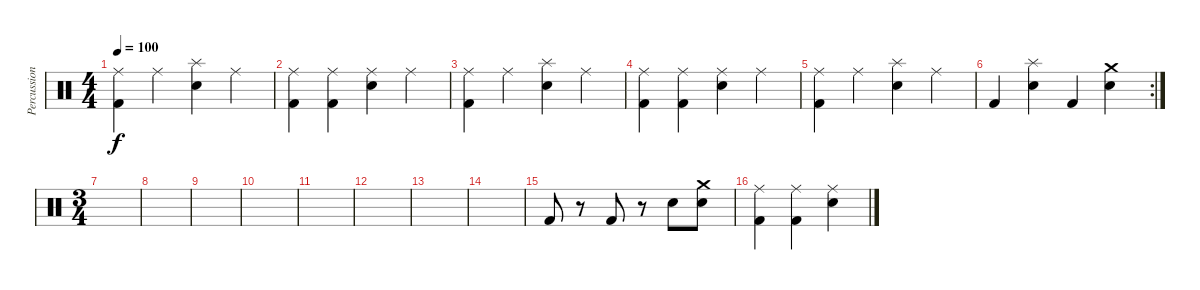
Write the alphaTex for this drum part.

\track ("Percussion" "Percussion") {instrument percussion}
\staff {score}
\articulation defaults
\ts (4 4)
\tempo 100
\clef neutral
\ks c
("Ride (middle)" "Kick (hit) 2").4{dy f} "Ride (middle)".4 ("Splash (hit)" "Snare (hit) 2").4 "Ride (middle)".4 |
("Ride (middle)" "Kick (hit) 2").4 ("Ride (middle)" "Kick (hit) 2").4 ("Ride (middle)" "Snare (hit) 2").4 "Ride (middle)".4 |
("Ride (middle)" "Kick (hit) 2").4 "Ride (middle)".4 ("Splash (hit)" "Snare (hit) 2").4 "Ride (middle)".4 |
("Ride (middle)" "Kick (hit) 2").4 ("Ride (middle)" "Kick (hit) 2").4 ("Ride (middle)" "Snare (hit) 2").4 "Ride (middle)".4 |
("Ride (middle)" "Kick (hit) 2").4 "Ride (middle)".4 ("Splash (hit)" "Snare (hit) 2").4 "Ride (middle)".4 |
\rc 2 "Kick (hit) 2".4
("Splash (hit)" "Snare (hit) 2").4 "Kick (hit) 2".4 ("Crash medium (hit)" "Snare (hit) 2").4 |
\ts (3 4)
|
|
|
|
|
|
|
|
"Kick (hit) 2".8 r.8 "Kick (hit) 2".8 r.8 "Snare (hit) 2".8 ("Crash medium (hit)" "Snare (hit) 2").8 |
("Ride (middle)" "Kick (hit) 2").4 ("Ride (middle)" "Kick (hit) 2").4 ("Ride (middle)" "Snare (hit) 2").4
